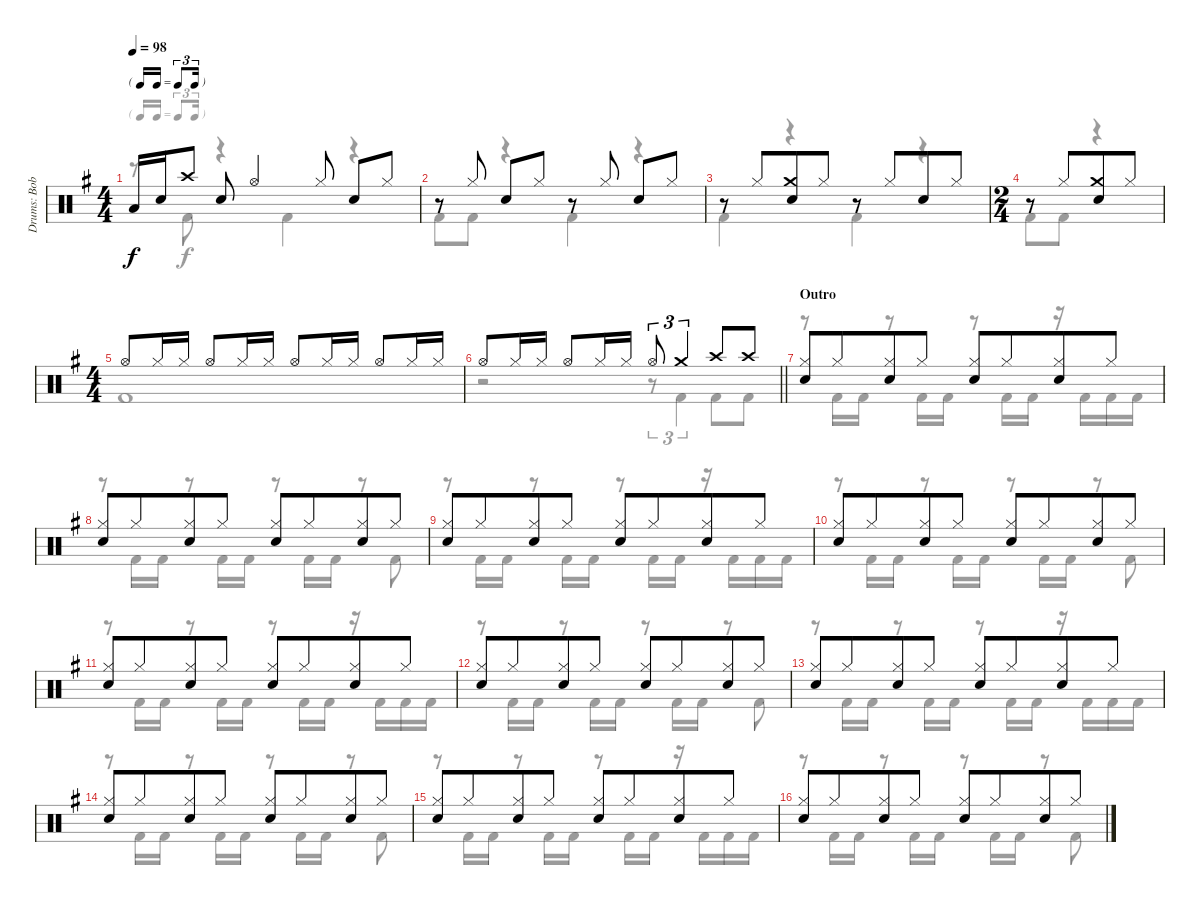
\track ("Drums: Bobby" "Drums: Bob") {instrument percussion}
\staff {score}
\articulation defaults
\voice
\ts (4 4)
\tf triplet16th
\tempo 98
\clef neutral
\ks g "Low Tom (hit)".16{dy f} "Snare (hit) 2".16 "Crash high (hit)".8 "Snare (hit) 2".8 "Hi-Hat (open)".4 "Hi-Hat (closed)".8 "Snare (hit) 2".8 "Hi-Hat (closed)".8
|
r.8 "Hi-Hat (closed)".8 "Snare (hit) 2".8 "Hi-Hat (closed)".8 r.8 "Hi-Hat (closed)".8 "Snare (hit) 2".8 "Hi-Hat (closed)".8 |
r.8 "Hi-Hat (closed)".8{beam merge} ("Crash medium (hit)" "Snare (hit) 2").8 "Hi-Hat (closed)".8 r.8 "Hi-Hat (closed)".8{beam merge} "Snare (hit) 2".8 "Hi-Hat (closed)".8 |
\ts (2 4)
r.8 "Hi-Hat (closed)".8{beam merge} ("Crash medium (hit)" "Snare (hit) 2").8 "Hi-Hat (closed)".8 |
\ts (4 4)
"Hi-Hat (open)".8 "Hi-Hat (closed)".16 "Hi-Hat (closed)".16 "Hi-Hat (open)".8 "Hi-Hat (closed)".16 "Hi-Hat (closed)".16 "Hi-Hat (open)".8 "Hi-Hat (closed)".16 "Hi-Hat (closed)".16 "Hi-Hat (open)".8 "Hi-Hat (closed)".16 "Hi-Hat (closed)".16 |
\barLineRight lightlight "Hi-Hat (open)".8 "Hi-Hat (closed)".16 "Hi-Hat (closed)".16 "Hi-Hat (open)".8 "Hi-Hat (closed)".16 "Hi-Hat (closed)".16 "Hi-Hat (open)".8{tu (3 2)} "Crash medium (hit)".4{tu (3 2)} "Crash high (hit)".8 "Crash high (hit)".8
|
\section ("" "Outro")
("Hi-Hat (closed)" "Snare (hit) 2").8 "Hi-Hat (closed)".8{beam merge} ("Hi-Hat (closed)" "Snare (hit) 2").8 "Hi-Hat (closed)".8 ("Hi-Hat (closed)" "Snare (hit) 2").8 "Hi-Hat (closed)".8{beam merge} ("Hi-Hat (closed)" "Snare (hit) 2").8 "Hi-Hat (closed)".8 |
("Hi-Hat (closed)" "Snare (hit) 2").8 "Hi-Hat (closed)".8{beam merge} ("Hi-Hat (closed)" "Snare (hit) 2").8 "Hi-Hat (closed)".8 ("Hi-Hat (closed)" "Snare (hit) 2").8 "Hi-Hat (closed)".8{beam merge} ("Hi-Hat (closed)" "Snare (hit) 2").8 "Hi-Hat (closed)".8 |
("Hi-Hat (closed)" "Snare (hit) 2").8 "Hi-Hat (closed)".8{beam merge} ("Hi-Hat (closed)" "Snare (hit) 2").8 "Hi-Hat (closed)".8 ("Hi-Hat (closed)" "Snare (hit) 2").8 "Hi-Hat (closed)".8{beam merge} ("Hi-Hat (closed)" "Snare (hit) 2").8 "Hi-Hat (closed)".8 |
("Hi-Hat (closed)" "Snare (hit) 2").8 "Hi-Hat (closed)".8{beam merge} ("Hi-Hat (closed)" "Snare (hit) 2").8 "Hi-Hat (closed)".8 ("Hi-Hat (closed)" "Snare (hit) 2").8 "Hi-Hat (closed)".8{beam merge} ("Hi-Hat (closed)" "Snare (hit) 2").8 "Hi-Hat (closed)".8 |
("Hi-Hat (closed)" "Snare (hit) 2").8 "Hi-Hat (closed)".8{beam merge} ("Hi-Hat (closed)" "Snare (hit) 2").8 "Hi-Hat (closed)".8 ("Hi-Hat (closed)" "Snare (hit) 2").8 "Hi-Hat (closed)".8{beam merge} ("Hi-Hat (closed)" "Snare (hit) 2").8 "Hi-Hat (closed)".8 |
("Hi-Hat (closed)" "Snare (hit) 2").8 "Hi-Hat (closed)".8{beam merge} ("Hi-Hat (closed)" "Snare (hit) 2").8 "Hi-Hat (closed)".8 ("Hi-Hat (closed)" "Snare (hit) 2").8 "Hi-Hat (closed)".8{beam merge} ("Hi-Hat (closed)" "Snare (hit) 2").8 "Hi-Hat (closed)".8 |
("Hi-Hat (closed)" "Snare (hit) 2").8 "Hi-Hat (closed)".8{beam merge} ("Hi-Hat (closed)" "Snare (hit) 2").8 "Hi-Hat (closed)".8 ("Hi-Hat (closed)" "Snare (hit) 2").8 "Hi-Hat (closed)".8{beam merge} ("Hi-Hat (closed)" "Snare (hit) 2").8 "Hi-Hat (closed)".8 |
("Hi-Hat (closed)" "Snare (hit) 2").8 "Hi-Hat (closed)".8{beam merge} ("Hi-Hat (closed)" "Snare (hit) 2").8 "Hi-Hat (closed)".8 ("Hi-Hat (closed)" "Snare (hit) 2").8 "Hi-Hat (closed)".8{beam merge} ("Hi-Hat (closed)" "Snare (hit) 2").8 "Hi-Hat (closed)".8 |
("Hi-Hat (closed)" "Snare (hit) 2").8 "Hi-Hat (closed)".8{beam merge} ("Hi-Hat (closed)" "Snare (hit) 2").8 "Hi-Hat (closed)".8 ("Hi-Hat (closed)" "Snare (hit) 2").8 "Hi-Hat (closed)".8{beam merge} ("Hi-Hat (closed)" "Snare (hit) 2").8 "Hi-Hat (closed)".8 |
("Hi-Hat (closed)" "Snare (hit) 2").8 "Hi-Hat (closed)".8{beam merge} ("Hi-Hat (closed)" "Snare (hit) 2").8 "Hi-Hat (closed)".8 ("Hi-Hat (closed)" "Snare (hit) 2").8 "Hi-Hat (closed)".8{beam merge} ("Hi-Hat (closed)" "Snare (hit) 2").8 "Hi-Hat (closed)".8
\voice
\clef neutral
\ottava regular
\simile none
\ks g
r.8{dy f} "Kick (hit) 2".8 r.4 "Kick (hit) 2".4 r.4 |
"Kick (hit) 2".8 "Kick (hit) 2".8 r.4 "Kick (hit) 2".4 r.4 |
"Kick (hit) 2".4 r.4 "Kick (hit) 2".4 r.4 |
"Kick (hit) 2".8 "Kick (hit) 2".8 r.4 |
"Kick (hit) 2".1 |
\barLineRight lightlight
r.2 r.8{tu (3 2)} "Kick (hit) 2".4{tu (3 2)} "Kick (hit) 2".8 "Kick (hit) 2".8 |
r.8 "Kick (hit) 2".16 "Kick (hit) 2".16 r.8 "Kick (hit) 2".16 "Kick (hit) 2".16 r.8 "Kick (hit) 2".16 "Kick (hit) 2".16 r.16 "Kick (hit) 2".16 "Kick (hit) 2".16 "Kick (hit) 2".16 |
r.8 "Kick (hit) 2".16 "Kick (hit) 2".16 r.8 "Kick (hit) 2".16 "Kick (hit) 2".16 r.8 "Kick (hit) 2".16 "Kick (hit) 2".16 r.8 "Kick (hit) 2".8 |
r.8 "Kick (hit) 2".16 "Kick (hit) 2".16 r.8 "Kick (hit) 2".16 "Kick (hit) 2".16 r.8 "Kick (hit) 2".16 "Kick (hit) 2".16 r.16 "Kick (hit) 2".16 "Kick (hit) 2".16 "Kick (hit) 2".16 |
r.8 "Kick (hit) 2".16 "Kick (hit) 2".16 r.8 "Kick (hit) 2".16 "Kick (hit) 2".16 r.8 "Kick (hit) 2".16 "Kick (hit) 2".16 r.8 "Kick (hit) 2".8 |
r.8 "Kick (hit) 2".16 "Kick (hit) 2".16 r.8 "Kick (hit) 2".16 "Kick (hit) 2".16 r.8 "Kick (hit) 2".16 "Kick (hit) 2".16 r.16 "Kick (hit) 2".16 "Kick (hit) 2".16 "Kick (hit) 2".16 |
r.8 "Kick (hit) 2".16 "Kick (hit) 2".16 r.8 "Kick (hit) 2".16 "Kick (hit) 2".16 r.8 "Kick (hit) 2".16 "Kick (hit) 2".16 r.8 "Kick (hit) 2".8 |
r.8 "Kick (hit) 2".16 "Kick (hit) 2".16 r.8 "Kick (hit) 2".16 "Kick (hit) 2".16 r.8 "Kick (hit) 2".16 "Kick (hit) 2".16 r.16 "Kick (hit) 2".16 "Kick (hit) 2".16 "Kick (hit) 2".16 |
r.8 "Kick (hit) 2".16 "Kick (hit) 2".16 r.8 "Kick (hit) 2".16 "Kick (hit) 2".16 r.8 "Kick (hit) 2".16 "Kick (hit) 2".16 r.8 "Kick (hit) 2".8 |
r.8 "Kick (hit) 2".16 "Kick (hit) 2".16 r.8 "Kick (hit) 2".16 "Kick (hit) 2".16 r.8 "Kick (hit) 2".16 "Kick (hit) 2".16 r.16 "Kick (hit) 2".16 "Kick (hit) 2".16 "Kick (hit) 2".16 |
r.8 "Kick (hit) 2".16 "Kick (hit) 2".16 r.8 "Kick (hit) 2".16 "Kick (hit) 2".16 r.8 "Kick (hit) 2".16 "Kick (hit) 2".16 r.8 "Kick (hit) 2".8
